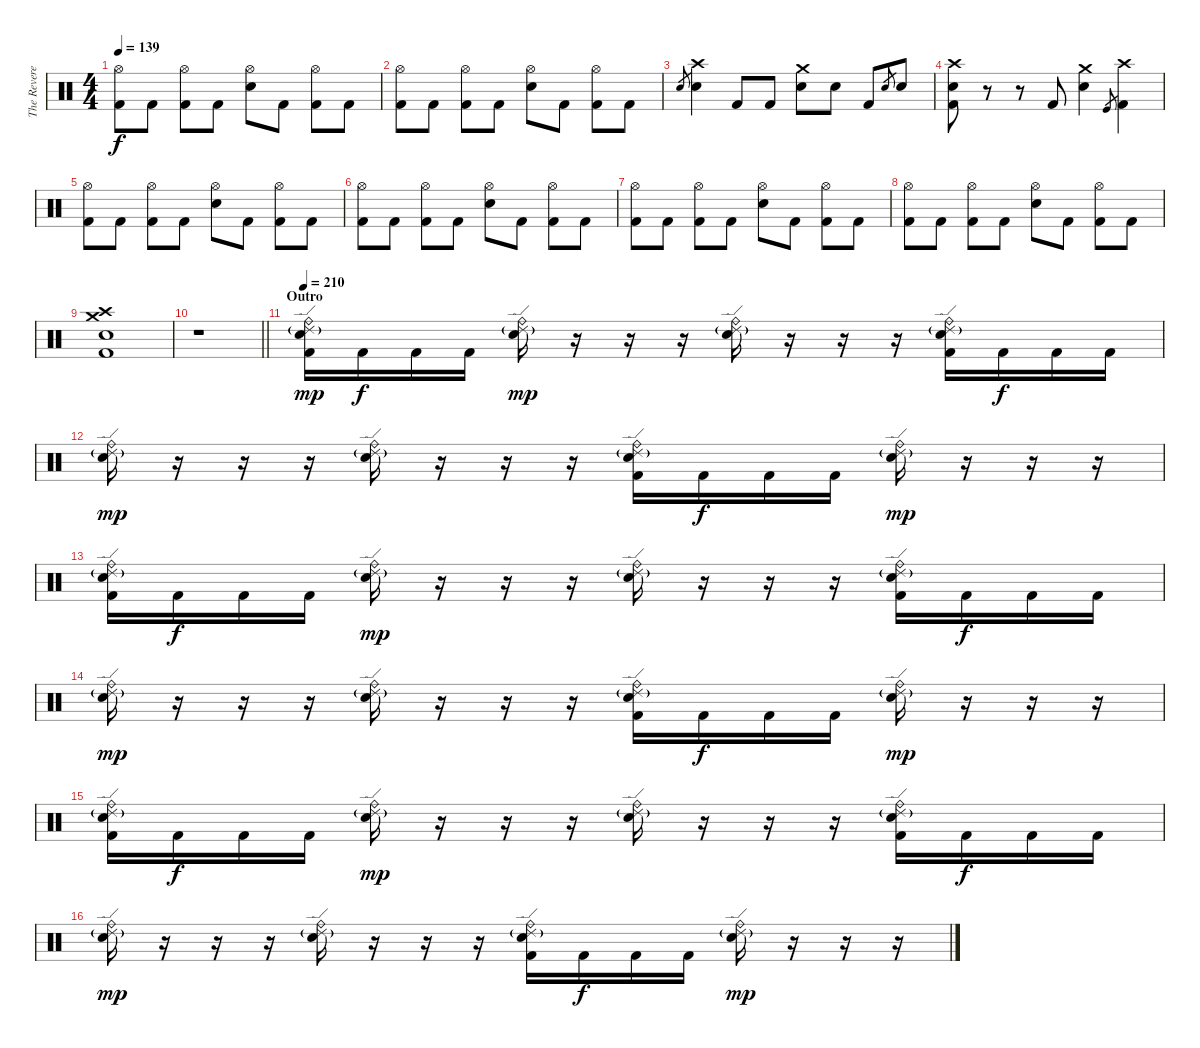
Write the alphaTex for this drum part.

\track ("The Reverend" "The Revere") {instrument percussion}
\staff {score}
\articulation defaults
\ts (4 4)
\tempo 139
\clef neutral
\ks c
("Hi-Hat (open)" "Kick (hit) 2").8{dy f} "Kick (hit) 2".8 ("Hi-Hat (open)" "Kick (hit) 2").8 "Kick (hit) 2".8 ("Hi-Hat (open)" "Electric Snare (hit)").8 "Kick (hit) 2".8 ("Hi-Hat (open)" "Kick (hit) 2").8 "Kick (hit) 2".8 |
("Hi-Hat (open)" "Kick (hit) 2").8 "Kick (hit) 2".8 ("Hi-Hat (open)" "Kick (hit) 2").8 "Kick (hit) 2".8 ("Hi-Hat (open)" "Electric Snare (hit)").8 "Kick (hit) 2".8 ("Hi-Hat (open)" "Kick (hit) 2").8 "Kick (hit) 2".8 |
"Electric Snare (hit)".8{gr} ("Crash high (hit)" "Electric Snare (hit)").4 "Kick (hit) 2".8 "Kick (hit) 2".8 ("Crash medium (hit)" "Electric Snare (hit)").8 "Electric Snare (hit)".8 "Kick (hit) 2".8 "Electric Snare (hit)".8{gr} "Electric Snare (hit)".8 |
("Crash high (hit)" "Electric Snare (hit)" "Kick (hit) 2").8 r.8 r.8 "Kick (hit) 2".8 ("Crash medium (hit)" "Electric Snare (hit)").4 "Kick (hit)".8{gr} ("Crash high (hit)" "Kick (hit) 2").4 |
("Hi-Hat (open)" "Kick (hit) 2").8 "Kick (hit) 2".8 ("Hi-Hat (open)" "Kick (hit) 2").8 "Kick (hit) 2".8 ("Hi-Hat (open)" "Electric Snare (hit)").8 "Kick (hit) 2".8 ("Hi-Hat (open)" "Kick (hit) 2").8 "Kick (hit) 2".8 |
("Hi-Hat (open)" "Kick (hit) 2").8 "Kick (hit) 2".8 ("Hi-Hat (open)" "Kick (hit) 2").8 "Kick (hit) 2".8 ("Hi-Hat (open)" "Electric Snare (hit)").8 "Kick (hit) 2".8 ("Hi-Hat (open)" "Kick (hit) 2").8 "Kick (hit) 2".8 |
("Hi-Hat (open)" "Kick (hit) 2").8 "Kick (hit) 2".8 ("Hi-Hat (open)" "Kick (hit) 2").8 "Kick (hit) 2".8 ("Hi-Hat (open)" "Electric Snare (hit)").8 "Kick (hit) 2".8 ("Hi-Hat (open)" "Kick (hit) 2").8 "Kick (hit) 2".8 |
("Hi-Hat (open)" "Kick (hit) 2").8 "Kick (hit) 2".8 ("Hi-Hat (open)" "Kick (hit) 2").8 "Kick (hit) 2".8 ("Hi-Hat (open)" "Electric Snare (hit)").8 "Kick (hit) 2".8 ("Hi-Hat (open)" "Kick (hit) 2").8 "Kick (hit) 2".8 |
("Crash high (hit)" "Crash medium (hit)" "Electric Snare (hit)" "Kick (hit) 2").1 |
\barLineRight lightlight
r.1 |
\section ("" "Outro")
\tempo 210
("Ride (edge) 2"{g} "Ride (bell)" "Electric Snare (hit)" "Kick (hit) 2").16{dy mp} "Kick (hit) 2".16{dy f} "Kick (hit) 2".16 "Kick (hit) 2".16 ("Ride (edge) 2"{g} "Ride (bell)" "Electric Snare (hit)").16{dy mp} r.16 r.16 r.16 ("Ride (edge) 2"{g} "Ride (bell)" "Electric Snare (hit)").16 r.16 r.16 r.16 ("Ride (edge) 2"{g} "Ride (bell)" "Electric Snare (hit)" "Kick (hit) 2").16 "Kick (hit) 2".16{dy f} "Kick (hit) 2".16 "Kick (hit) 2".16 |
("Ride (edge) 2"{g} "Ride (bell)" "Electric Snare (hit)").16{dy mp} r.16 r.16 r.16 ("Ride (edge) 2"{g} "Ride (bell)" "Electric Snare (hit)").16 r.16 r.16 r.16 ("Ride (edge) 2"{g} "Ride (bell)" "Electric Snare (hit)" "Kick (hit) 2").16 "Kick (hit) 2".16{dy f} "Kick (hit) 2".16 "Kick (hit) 2".16 ("Ride (edge) 2"{g} "Ride (bell)" "Electric Snare (hit)").16{dy mp} r.16 r.16 r.16 |
("Ride (edge) 2"{g} "Ride (bell)" "Electric Snare (hit)" "Kick (hit) 2").16 "Kick (hit) 2".16{dy f} "Kick (hit) 2".16 "Kick (hit) 2".16 ("Ride (edge) 2"{g} "Ride (bell)" "Electric Snare (hit)").16{dy mp} r.16 r.16 r.16 ("Ride (edge) 2"{g} "Ride (bell)" "Electric Snare (hit)").16 r.16 r.16 r.16 ("Ride (edge) 2"{g} "Ride (bell)" "Electric Snare (hit)" "Kick (hit) 2").16 "Kick (hit) 2".16{dy f} "Kick (hit) 2".16 "Kick (hit) 2".16 |
("Ride (edge) 2"{g} "Ride (bell)" "Electric Snare (hit)").16{dy mp} r.16 r.16 r.16 ("Ride (edge) 2"{g} "Ride (bell)" "Electric Snare (hit)").16 r.16 r.16 r.16 ("Ride (edge) 2"{g} "Ride (bell)" "Electric Snare (hit)" "Kick (hit) 2").16 "Kick (hit) 2".16{dy f} "Kick (hit) 2".16 "Kick (hit) 2".16 ("Ride (edge) 2"{g} "Ride (bell)" "Electric Snare (hit)").16{dy mp} r.16 r.16 r.16 |
("Ride (edge) 2"{g} "Ride (bell)" "Electric Snare (hit)" "Kick (hit) 2").16 "Kick (hit) 2".16{dy f} "Kick (hit) 2".16 "Kick (hit) 2".16 ("Ride (edge) 2"{g} "Ride (bell)" "Electric Snare (hit)").16{dy mp} r.16 r.16 r.16 ("Ride (edge) 2"{g} "Ride (bell)" "Electric Snare (hit)").16 r.16 r.16 r.16 ("Ride (edge) 2"{g} "Ride (bell)" "Electric Snare (hit)" "Kick (hit) 2").16 "Kick (hit) 2".16{dy f} "Kick (hit) 2".16 "Kick (hit) 2".16 |
("Ride (edge) 2"{g} "Ride (bell)" "Electric Snare (hit)").16{dy mp} r.16 r.16 r.16 ("Ride (edge) 2"{g} "Ride (bell)" "Electric Snare (hit)").16 r.16 r.16 r.16 ("Ride (edge) 2"{g} "Ride (bell)" "Electric Snare (hit)" "Kick (hit) 2").16 "Kick (hit) 2".16{dy f} "Kick (hit) 2".16 "Kick (hit) 2".16 ("Ride (edge) 2"{g} "Ride (bell)" "Electric Snare (hit)").16{dy mp} r.16 r.16 r.16
